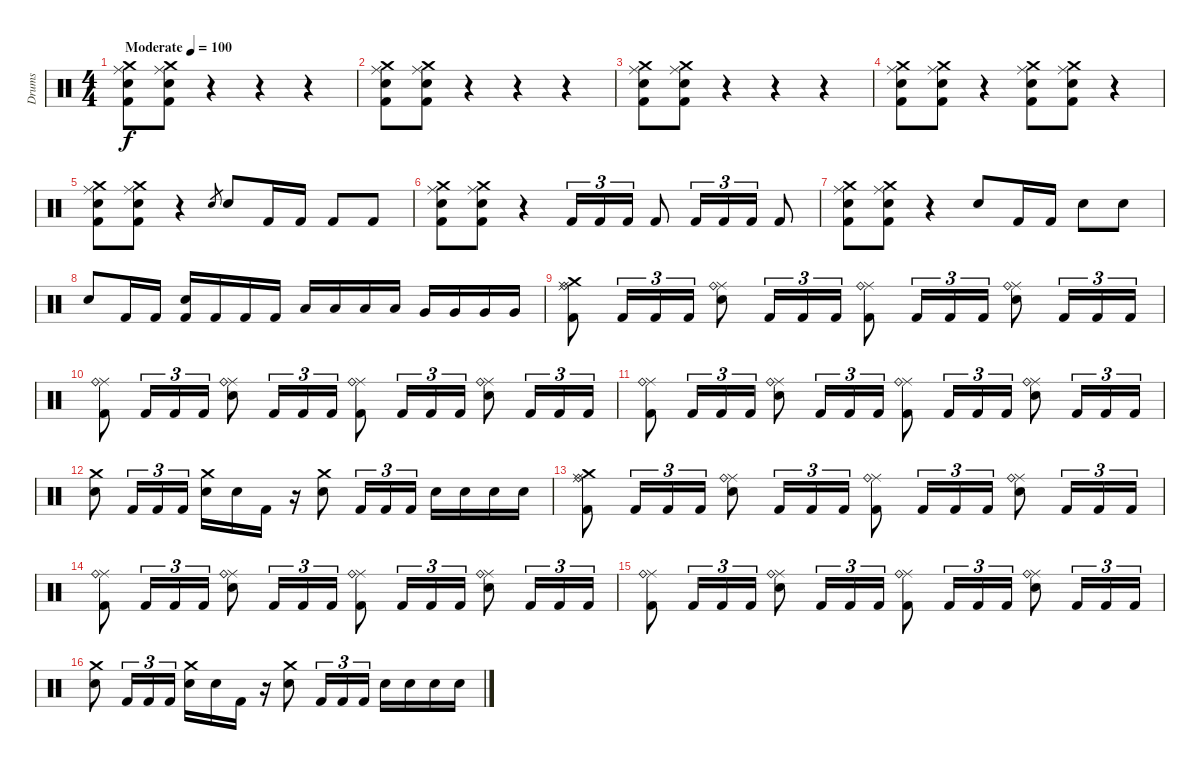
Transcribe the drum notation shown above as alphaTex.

\track ("Drums" "Drums") {instrument percussion}
\staff {score}
\articulation defaults
\ts (4 4)
\tempo (100 "Moderate")
\clef neutral
\ks c
("Kick (hit) 2" "Snare (hit) 2" "Ride (middle)" "Crash medium (hit)").8{dy f} ("Snare (hit) 2" "Kick (hit) 2" "Ride (middle)" "Crash medium (hit)").8 r.4 r.4 r.4 |
("Kick (hit) 2" "Snare (hit) 2" "Ride (middle)" "Crash medium (hit)").8 ("Snare (hit) 2" "Kick (hit) 2" "Ride (middle)" "Crash medium (hit)").8 r.4 r.4 r.4 |
("Kick (hit) 2" "Snare (hit) 2" "Ride (middle)" "Crash medium (hit)").8 ("Snare (hit) 2" "Kick (hit) 2" "Ride (middle)" "Crash medium (hit)").8 r.4 r.4 r.4 |
("Kick (hit) 2" "Snare (hit) 2" "Ride (middle)" "Crash medium (hit)").8 ("Snare (hit) 2" "Kick (hit) 2" "Ride (middle)" "Crash medium (hit)").8 r.4 ("Kick (hit) 2" "Snare (hit) 2" "Ride (middle)" "Crash medium (hit)").8 ("Kick (hit) 2" "Snare (hit) 2" "Ride (middle)" "Crash medium (hit)").8 r.4 |
("Kick (hit) 2" "Snare (hit) 2" "Ride (middle)" "Crash medium (hit)").8 ("Snare (hit) 2" "Kick (hit) 2" "Ride (middle)" "Crash medium (hit)").8 r.4 "Snare (hit) 2".8{gr} "Snare (hit) 2".8 "Kick (hit) 2".16 "Kick (hit) 2".16 "Kick (hit) 2".8 "Kick (hit) 2".8 |
("Kick (hit) 2" "Snare (hit) 2" "Ride (middle)" "Crash medium (hit)").8 ("Snare (hit) 2" "Kick (hit) 2" "Ride (middle)" "Crash medium (hit)").8 r.4 "Kick (hit) 2".16{tu (3 2)} "Kick (hit) 2".16{tu (3 2)} "Kick (hit) 2".16{tu (3 2)} "Kick (hit) 2".8 "Kick (hit) 2".16{tu (3 2)} "Kick (hit) 2".16{tu (3 2)} "Kick (hit) 2".16{tu (3 2)} "Kick (hit) 2".8 |
("Kick (hit) 2" "Snare (hit) 2" "Ride (middle)" "Crash medium (hit)").8 ("Snare (hit) 2" "Kick (hit) 2" "Ride (middle)" "Crash medium (hit)").8 r.4 "Snare (hit) 2".8 "Kick (hit) 2".16 "Kick (hit) 2".16 "Snare (hit) 2".8 "Snare (hit) 2".8 |
"Snare (hit) 2".8 "Kick (hit) 2".16 "Kick (hit) 2".16 ("Kick (hit) 2" "Snare (hit) 2").16 "Kick (hit) 2".16 "Kick (hit) 2".16 "Kick (hit) 2".16 "Low Tom (hit)".16 "Low Tom (hit)".16 "Low Tom (hit)".16 "Low Tom (hit)".16 "Very Low Tom (hit)".16 "Very Low Tom (hit)".16 "Very Low Tom (hit)".16 "Very Low Tom (hit)".16 |
("Kick (hit) 2" "Crash medium (hit)" "Ride (middle)" "Ride (bell)").8 "Kick (hit) 2".16{tu (3 2)} "Kick (hit) 2".16{tu (3 2)} "Kick (hit) 2".16{tu (3 2)} ("Snare (hit) 2" "Ride (middle)" "Ride (bell)").8 "Kick (hit) 2".16{tu (3 2)} "Kick (hit) 2".16{tu (3 2)} "Kick (hit) 2".16{tu (3 2)} ("Kick (hit) 2" "Ride (middle)" "Ride (bell)").8 "Kick (hit) 2".16{tu (3 2)} "Kick (hit) 2".16{tu (3 2)} "Kick (hit) 2".16{tu (3 2)} ("Snare (hit) 2" "Ride (middle)" "Ride (bell)").8 "Kick (hit) 2".16{tu (3 2)} "Kick (hit) 2".16{tu (3 2)} "Kick (hit) 2".16{tu (3 2)} |
("Kick (hit) 2" "Ride (middle)" "Ride (bell)").8 "Kick (hit) 2".16{tu (3 2)} "Kick (hit) 2".16{tu (3 2)} "Kick (hit) 2".16{tu (3 2)} ("Snare (hit) 2" "Ride (middle)" "Ride (bell)").8 "Kick (hit) 2".16{tu (3 2)} "Kick (hit) 2".16{tu (3 2)} "Kick (hit) 2".16{tu (3 2)} ("Kick (hit) 2" "Ride (middle)" "Ride (bell)").8 "Kick (hit) 2".16{tu (3 2)} "Kick (hit) 2".16{tu (3 2)} "Kick (hit) 2".16{tu (3 2)} ("Snare (hit) 2" "Ride (middle)" "Ride (bell)").8 "Kick (hit) 2".16{tu (3 2)} "Kick (hit) 2".16{tu (3 2)} "Kick (hit) 2".16{tu (3 2)} |
("Kick (hit) 2" "Ride (middle)" "Ride (bell)").8 "Kick (hit) 2".16{tu (3 2)} "Kick (hit) 2".16{tu (3 2)} "Kick (hit) 2".16{tu (3 2)} ("Snare (hit) 2" "Ride (middle)" "Ride (bell)").8 "Kick (hit) 2".16{tu (3 2)} "Kick (hit) 2".16{tu (3 2)} "Kick (hit) 2".16{tu (3 2)} ("Kick (hit) 2" "Ride (middle)" "Ride (bell)").8 "Kick (hit) 2".16{tu (3 2)} "Kick (hit) 2".16{tu (3 2)} "Kick (hit) 2".16{tu (3 2)} ("Snare (hit) 2" "Ride (middle)" "Ride (bell)").8 "Kick (hit) 2".16{tu (3 2)} "Kick (hit) 2".16{tu (3 2)} "Kick (hit) 2".16{tu (3 2)} |
("Snare (hit) 2" "Crash medium (hit)").8 "Kick (hit) 2".16{tu (3 2)} "Kick (hit) 2".16{tu (3 2)} "Kick (hit) 2".16{tu (3 2)} ("Snare (hit) 2" "Crash medium (hit)").16 "Snare (hit) 2".16 "Kick (hit) 2".16 r.16 ("Snare (hit) 2" "Crash medium (hit)").8 "Kick (hit) 2".16{tu (3 2)} "Kick (hit) 2".16{tu (3 2)} "Kick (hit) 2".16{tu (3 2)} "Snare (hit) 2".16 "Snare (hit) 2".16 "Snare (hit) 2".16 "Snare (hit) 2".16 |
("Kick (hit) 2" "Crash medium (hit)" "Ride (middle)" "Ride (bell)").8 "Kick (hit) 2".16{tu (3 2)} "Kick (hit) 2".16{tu (3 2)} "Kick (hit) 2".16{tu (3 2)} ("Snare (hit) 2" "Ride (middle)" "Ride (bell)").8 "Kick (hit) 2".16{tu (3 2)} "Kick (hit) 2".16{tu (3 2)} "Kick (hit) 2".16{tu (3 2)} ("Kick (hit) 2" "Ride (middle)" "Ride (bell)").8 "Kick (hit) 2".16{tu (3 2)} "Kick (hit) 2".16{tu (3 2)} "Kick (hit) 2".16{tu (3 2)} ("Snare (hit) 2" "Ride (middle)" "Ride (bell)").8 "Kick (hit) 2".16{tu (3 2)} "Kick (hit) 2".16{tu (3 2)} "Kick (hit) 2".16{tu (3 2)} |
("Kick (hit) 2" "Ride (middle)" "Ride (bell)").8 "Kick (hit) 2".16{tu (3 2)} "Kick (hit) 2".16{tu (3 2)} "Kick (hit) 2".16{tu (3 2)} ("Snare (hit) 2" "Ride (middle)" "Ride (bell)").8 "Kick (hit) 2".16{tu (3 2)} "Kick (hit) 2".16{tu (3 2)} "Kick (hit) 2".16{tu (3 2)} ("Kick (hit) 2" "Ride (middle)" "Ride (bell)").8 "Kick (hit) 2".16{tu (3 2)} "Kick (hit) 2".16{tu (3 2)} "Kick (hit) 2".16{tu (3 2)} ("Snare (hit) 2" "Ride (middle)" "Ride (bell)").8 "Kick (hit) 2".16{tu (3 2)} "Kick (hit) 2".16{tu (3 2)} "Kick (hit) 2".16{tu (3 2)} |
("Kick (hit) 2" "Ride (middle)" "Ride (bell)").8 "Kick (hit) 2".16{tu (3 2)} "Kick (hit) 2".16{tu (3 2)} "Kick (hit) 2".16{tu (3 2)} ("Snare (hit) 2" "Ride (middle)" "Ride (bell)").8 "Kick (hit) 2".16{tu (3 2)} "Kick (hit) 2".16{tu (3 2)} "Kick (hit) 2".16{tu (3 2)} ("Kick (hit) 2" "Ride (middle)" "Ride (bell)").8 "Kick (hit) 2".16{tu (3 2)} "Kick (hit) 2".16{tu (3 2)} "Kick (hit) 2".16{tu (3 2)} ("Snare (hit) 2" "Ride (middle)" "Ride (bell)").8 "Kick (hit) 2".16{tu (3 2)} "Kick (hit) 2".16{tu (3 2)} "Kick (hit) 2".16{tu (3 2)} |
("Snare (hit) 2" "Crash medium (hit)").8 "Kick (hit) 2".16{tu (3 2)} "Kick (hit) 2".16{tu (3 2)} "Kick (hit) 2".16{tu (3 2)} ("Snare (hit) 2" "Crash medium (hit)").16 "Snare (hit) 2".16 "Kick (hit) 2".16 r.16 ("Snare (hit) 2" "Crash medium (hit)").8 "Kick (hit) 2".16{tu (3 2)} "Kick (hit) 2".16{tu (3 2)} "Kick (hit) 2".16{tu (3 2)} "Snare (hit) 2".16 "Snare (hit) 2".16 "Snare (hit) 2".16 "Snare (hit) 2".16
